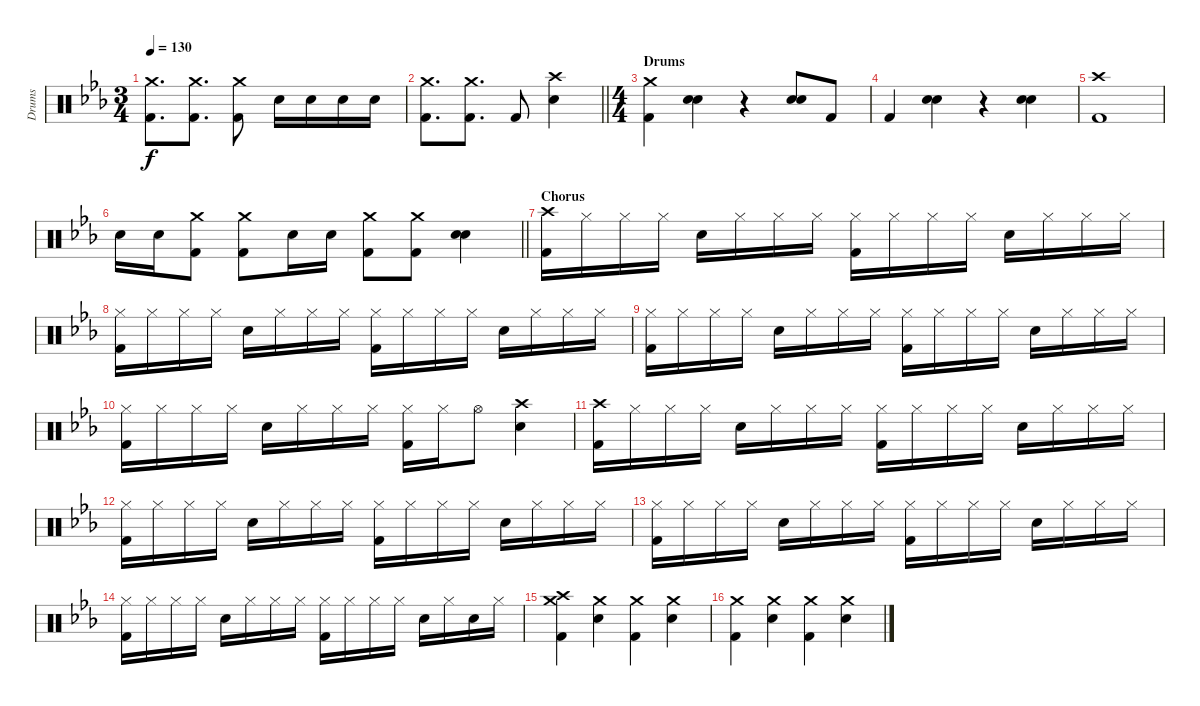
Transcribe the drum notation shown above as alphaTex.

\track ("Drums" "Drums") {instrument percussion}
\staff {score}
\articulation defaults
\ts (3 4)
\tempo 130
\clef neutral
\ks eb
("Crash medium (hit)" "Kick (hit) 2").8{d dy f} ("Crash medium (hit)" "Kick (hit) 2").8{d} ("Crash medium (hit)" "Kick (hit) 2").8 "Electric Snare (hit)".16 "Electric Snare (hit)".16 "Electric Snare (hit)".16 "Electric Snare (hit)".16 |
\barLineRight lightlight
("Crash medium (hit)" "Kick (hit) 2").8{d} ("Crash medium (hit)" "Kick (hit) 2").8{d} "Kick (hit) 2".8 ("Crash high (hit)" "Electric Snare (hit)").4 |
\ts (4 4)
\section ("" "Drums")
("Crash medium (hit)" "Kick (hit) 2").4 ("Electric Snare (hit)" "Electric Snare (hit)").4 r.4 ("Electric Snare (hit)" "Electric Snare (hit)").8 "Kick (hit) 2".8 |
"Kick (hit) 2".4 ("Electric Snare (hit)" "Electric Snare (hit)").4 r.4 ("Electric Snare (hit)" "Electric Snare (hit)").4 |
("Crash high (hit)" "Kick (hit) 2").1 |
\barLineRight lightlight "Electric Snare (hit)".16 "Electric Snare (hit)".16
("Crash medium (hit)" "Kick (hit) 2").8 ("Crash medium (hit)" "Kick (hit) 2").8 "Electric Snare (hit)".16 "Electric Snare (hit)".16 ("Crash medium (hit)" "Kick (hit) 2").8 ("Crash medium (hit)" "Kick (hit) 2").8 ("Electric Snare (hit)" "Electric Snare (hit)").4 |
\section ("" "Chorus")
("Crash high (hit)" "Kick (hit) 2").16 "Hi-Hat (closed)".16 "Hi-Hat (closed)".16 "Hi-Hat (closed)".16 "Electric Snare (hit)".16 "Hi-Hat (closed)".16 "Hi-Hat (closed)".16 "Hi-Hat (closed)".16 ("Hi-Hat (closed)" "Kick (hit) 2").16 "Hi-Hat (closed)".16 "Hi-Hat (closed)".16 "Hi-Hat (closed)".16 "Electric Snare (hit)".16 "Hi-Hat (closed)".16 "Hi-Hat (closed)".16 "Hi-Hat (closed)".16 |
("Hi-Hat (closed)" "Kick (hit) 2").16 "Hi-Hat (closed)".16 "Hi-Hat (closed)".16 "Hi-Hat (closed)".16 "Electric Snare (hit)".16 "Hi-Hat (closed)".16 "Hi-Hat (closed)".16 "Hi-Hat (closed)".16 ("Hi-Hat (closed)" "Kick (hit) 2").16 "Hi-Hat (closed)".16 "Hi-Hat (closed)".16 "Hi-Hat (closed)".16 "Electric Snare (hit)".16 "Hi-Hat (closed)".16 "Hi-Hat (closed)".16 "Hi-Hat (closed)".16 |
("Hi-Hat (closed)" "Kick (hit) 2").16 "Hi-Hat (closed)".16 "Hi-Hat (closed)".16 "Hi-Hat (closed)".16 "Electric Snare (hit)".16 "Hi-Hat (closed)".16 "Hi-Hat (closed)".16 "Hi-Hat (closed)".16 ("Hi-Hat (closed)" "Kick (hit) 2").16 "Hi-Hat (closed)".16 "Hi-Hat (closed)".16 "Hi-Hat (closed)".16 "Electric Snare (hit)".16 "Hi-Hat (closed)".16 "Hi-Hat (closed)".16 "Hi-Hat (closed)".16 |
("Hi-Hat (closed)" "Kick (hit) 2").16 "Hi-Hat (closed)".16 "Hi-Hat (closed)".16 "Hi-Hat (closed)".16 "Electric Snare (hit)".16 "Hi-Hat (closed)".16 "Hi-Hat (closed)".16 "Hi-Hat (closed)".16 ("Hi-Hat (closed)" "Kick (hit) 2").16 "Hi-Hat (closed)".16 "Hi-Hat (open)".8 ("Crash high (hit)" "Snare (hit) 2").4 |
("Crash high (hit)" "Kick (hit) 2").16 "Hi-Hat (closed)".16 "Hi-Hat (closed)".16 "Hi-Hat (closed)".16 "Electric Snare (hit)".16 "Hi-Hat (closed)".16 "Hi-Hat (closed)".16 "Hi-Hat (closed)".16 ("Hi-Hat (closed)" "Kick (hit) 2").16 "Hi-Hat (closed)".16 "Hi-Hat (closed)".16 "Hi-Hat (closed)".16 "Electric Snare (hit)".16 "Hi-Hat (closed)".16 "Hi-Hat (closed)".16 "Hi-Hat (closed)".16 |
("Hi-Hat (closed)" "Kick (hit) 2").16 "Hi-Hat (closed)".16 "Hi-Hat (closed)".16 "Hi-Hat (closed)".16 "Electric Snare (hit)".16 "Hi-Hat (closed)".16 "Hi-Hat (closed)".16 "Hi-Hat (closed)".16 ("Hi-Hat (closed)" "Kick (hit) 2").16 "Hi-Hat (closed)".16 "Hi-Hat (closed)".16 "Hi-Hat (closed)".16 "Electric Snare (hit)".16 "Hi-Hat (closed)".16 "Hi-Hat (closed)".16 "Hi-Hat (closed)".16 |
("Hi-Hat (closed)" "Kick (hit) 2").16 "Hi-Hat (closed)".16 "Hi-Hat (closed)".16 "Hi-Hat (closed)".16 "Electric Snare (hit)".16 "Hi-Hat (closed)".16 "Hi-Hat (closed)".16 "Hi-Hat (closed)".16 ("Hi-Hat (closed)" "Kick (hit) 2").16 "Hi-Hat (closed)".16 "Hi-Hat (closed)".16 "Hi-Hat (closed)".16 "Electric Snare (hit)".16 "Hi-Hat (closed)".16 "Hi-Hat (closed)".16 "Hi-Hat (closed)".16 |
("Hi-Hat (closed)" "Kick (hit) 2").16 "Hi-Hat (closed)".16 "Hi-Hat (closed)".16 "Hi-Hat (closed)".16 "Electric Snare (hit)".16 "Hi-Hat (closed)".16 "Hi-Hat (closed)".16 "Hi-Hat (closed)".16 ("Hi-Hat (closed)" "Kick (hit) 2").16 "Hi-Hat (closed)".16 "Hi-Hat (closed)".16 "Hi-Hat (closed)".16 "Electric Snare (hit)".16 "Hi-Hat (closed)".16 "Electric Snare (hit)".16 "Hi-Hat (closed)".16 |
("Crash medium (hit)" "Kick (hit) 2" "Crash high (hit)").4 ("Crash medium (hit)" "Electric Snare (hit)").4 ("Crash medium (hit)" "Kick (hit) 2").4 ("Crash medium (hit)" "Electric Snare (hit)").4 |
("Crash medium (hit)" "Kick (hit) 2").4 ("Crash medium (hit)" "Electric Snare (hit)").4 ("Crash medium (hit)" "Kick (hit) 2").4 ("Crash medium (hit)" "Electric Snare (hit)").4
